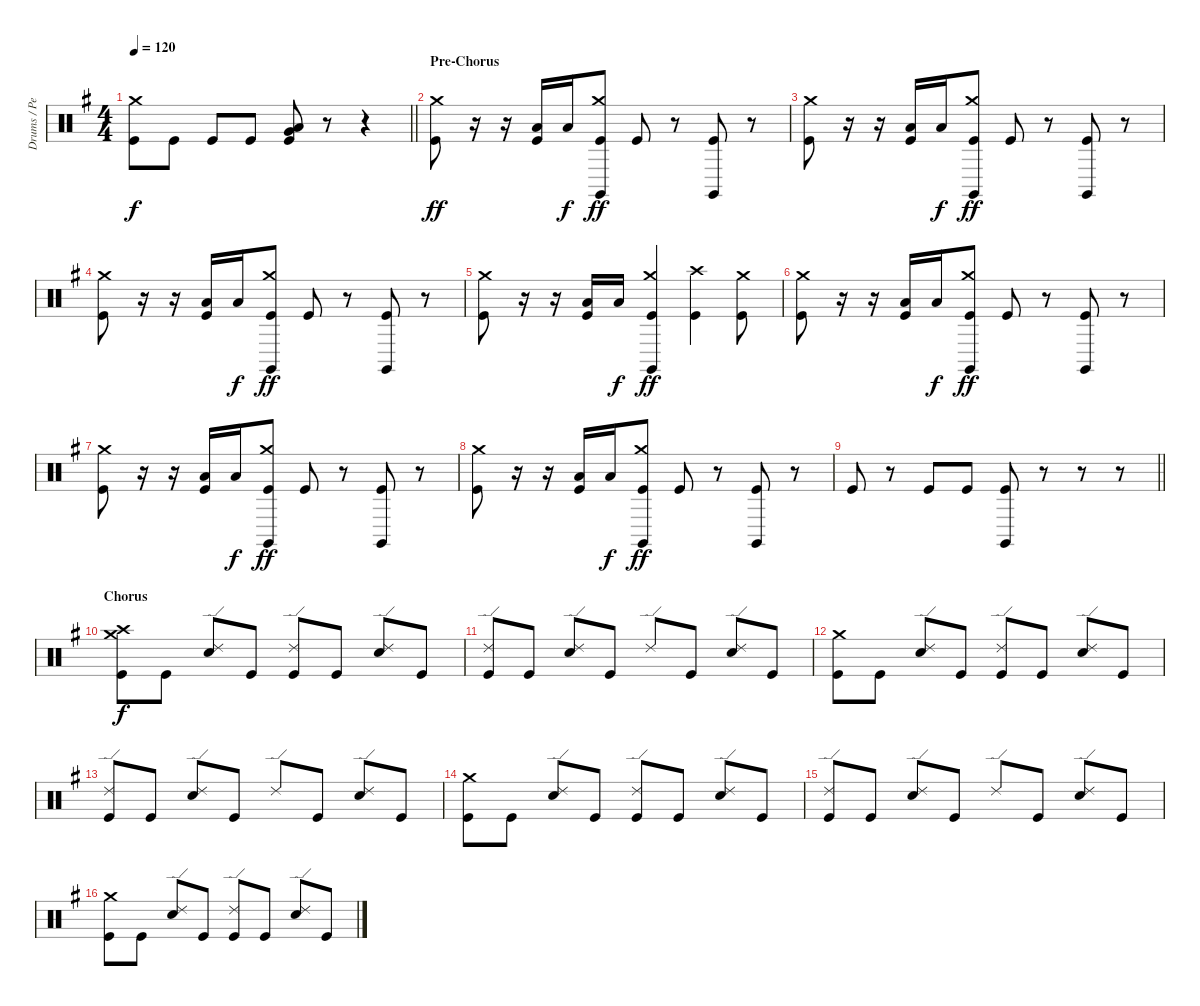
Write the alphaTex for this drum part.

\track ("Drums / Percussion" "Drums / Pe") {instrument percussion}
\staff {score}
\articulation defaults
\ts (4 4)
\tempo 120
\clef neutral
\barLineRight lightlight
\ks eminor
("Crash medium (hit)" "Kick (hit)").8{dy f} "Kick (hit)".8 "Kick (hit)".8 "Kick (hit)".8 ("Low Tom (hit)" "Very Low Tom (hit)" "Kick (hit)").8 r.8 r.4 |
\section ("" "Pre-Chorus")
("Crash medium (hit)" "Kick (hit)").8{dy ff} r.16 r.16 ("Low Tom (hit)" "Kick (hit)").16 "Low Tom (hit)".16{dy f} ("Crash medium (hit)" "Claves (hit)" "Kick (hit)").8{dy ff} "Kick (hit)".8 r.8 ("Claves (hit)" "Kick (hit)").8 r.8 |
("Crash medium (hit)" "Kick (hit)").8 r.16 r.16 ("Low Tom (hit)" "Kick (hit)").16 "Low Tom (hit)".16{dy f} ("Crash medium (hit)" "Claves (hit)" "Kick (hit)").8{dy ff} "Kick (hit)".8 r.8 ("Claves (hit)" "Kick (hit)").8 r.8 |
("Crash medium (hit)" "Kick (hit)").8 r.16 r.16 ("Low Tom (hit)" "Kick (hit)").16 "Low Tom (hit)".16{dy f} ("Crash medium (hit)" "Claves (hit)" "Kick (hit)").8{dy ff} "Kick (hit)".8 r.8 ("Claves (hit)" "Kick (hit)").8 r.8 |
("Crash medium (hit)" "Kick (hit)").8 r.16 r.16 ("Low Tom (hit)" "Kick (hit)").16 "Low Tom (hit)".16{dy f} ("Crash medium (hit)" "Claves (hit)" "Kick (hit)").4{dy ff} ("Crash high (hit)" "Kick (hit)").4 ("Crash medium (hit)" "Kick (hit)").8 |
("Crash medium (hit)" "Kick (hit)").8 r.16 r.16 ("Low Tom (hit)" "Kick (hit)").16 "Low Tom (hit)".16{dy f} ("Crash medium (hit)" "Claves (hit)" "Kick (hit)").8{dy ff} "Kick (hit)".8 r.8 ("Claves (hit)" "Kick (hit)").8 r.8 |
("Crash medium (hit)" "Kick (hit)").8 r.16 r.16 ("Low Tom (hit)" "Kick (hit)").16 "Low Tom (hit)".16{dy f} ("Crash medium (hit)" "Claves (hit)" "Kick (hit)").8{dy ff} "Kick (hit)".8 r.8 ("Claves (hit)" "Kick (hit)").8 r.8 |
("Crash medium (hit)" "Kick (hit)").8 r.16 r.16 ("Low Tom (hit)" "Kick (hit)").16 "Low Tom (hit)".16{dy f} ("Crash medium (hit)" "Claves (hit)" "Kick (hit)").8{dy ff} "Kick (hit)".8 r.8 ("Claves (hit)" "Kick (hit)").8 r.8 |
\barLineRight lightlight "Kick (hit)".8
r.8 "Kick (hit)".8 "Kick (hit)".8 ("Claves (hit)" "Kick (hit)").8 r.8 r.8 r.8 |
\section ("" "Chorus")
("Crash medium (hit)" "Crash high (hit)" "Kick (hit)").8{dy f} "Kick (hit)".8 ("Ride (edge) 2" "Snare (hit) 2").8 "Kick (hit)".8 ("Ride (edge) 2" "Kick (hit)").8 "Kick (hit)".8 ("Ride (edge) 2" "Snare (hit) 2").8 "Kick (hit)".8 |
("Ride (edge) 2" "Kick (hit)").8 "Kick (hit)".8 ("Ride (edge) 2" "Snare (hit) 2").8 "Kick (hit)".8 "Ride (edge) 2".8 "Kick (hit)".8 ("Ride (edge) 2" "Snare (hit) 2").8 "Kick (hit)".8 |
("Crash medium (hit)" "Kick (hit)").8 "Kick (hit)".8 ("Ride (edge) 2" "Snare (hit) 2").8 "Kick (hit)".8 ("Ride (edge) 2" "Kick (hit)").8 "Kick (hit)".8 ("Ride (edge) 2" "Snare (hit) 2").8 "Kick (hit)".8 |
("Ride (edge) 2" "Kick (hit)").8 "Kick (hit)".8 ("Ride (edge) 2" "Snare (hit) 2").8 "Kick (hit)".8 "Ride (edge) 2".8 "Kick (hit)".8 ("Ride (edge) 2" "Snare (hit) 2").8 "Kick (hit)".8 |
("Crash medium (hit)" "Kick (hit)").8 "Kick (hit)".8 ("Ride (edge) 2" "Snare (hit) 2").8 "Kick (hit)".8 ("Ride (edge) 2" "Kick (hit)").8 "Kick (hit)".8 ("Ride (edge) 2" "Snare (hit) 2").8 "Kick (hit)".8 |
("Ride (edge) 2" "Kick (hit)").8 "Kick (hit)".8 ("Ride (edge) 2" "Snare (hit) 2").8 "Kick (hit)".8 "Ride (edge) 2".8 "Kick (hit)".8 ("Ride (edge) 2" "Snare (hit) 2").8 "Kick (hit)".8 |
("Crash medium (hit)" "Kick (hit)").8 "Kick (hit)".8 ("Ride (edge) 2" "Snare (hit) 2").8 "Kick (hit)".8 ("Ride (edge) 2" "Kick (hit)").8 "Kick (hit)".8 ("Ride (edge) 2" "Snare (hit) 2").8 "Kick (hit)".8
